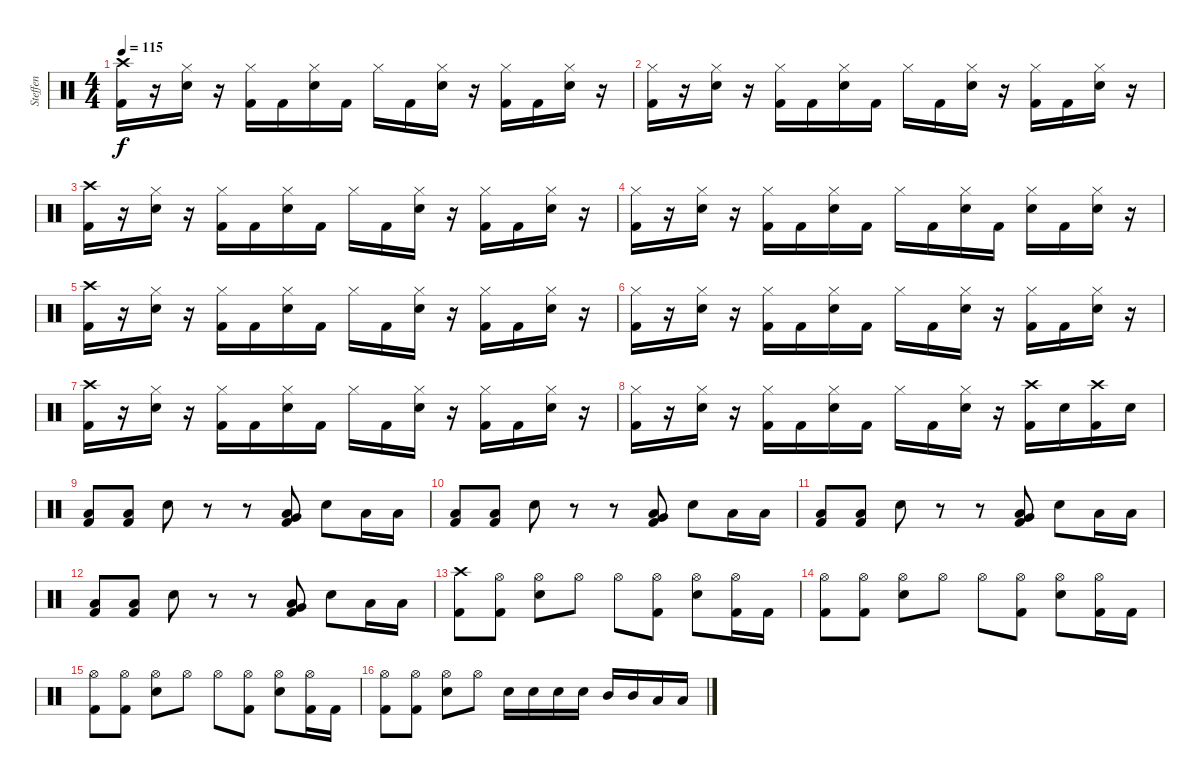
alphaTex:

\track ("Steffen" "Steffen") {instrument percussion}
\staff {score}
\articulation defaults
\ts (4 4)
\tempo 115
\clef neutral
\ks c
("Crash high (hit)" "Kick (hit) 2").16{dy f} r.16 ("Hi-Hat (closed)" "Snare (hit) 2").16 r.16 ("Hi-Hat (closed)" "Kick (hit) 2").16 "Kick (hit) 2".16 ("Hi-Hat (closed)" "Snare (hit) 2").16 "Kick (hit) 2".16 "Hi-Hat (closed)".16 "Kick (hit) 2".16 ("Hi-Hat (closed)" "Snare (hit) 2").16 r.16 ("Hi-Hat (closed)" "Kick (hit) 2").16 "Kick (hit) 2".16 ("Hi-Hat (closed)" "Snare (hit) 2").16 r.16 |
("Hi-Hat (closed)" "Kick (hit) 2").16 r.16 ("Hi-Hat (closed)" "Snare (hit) 2").16 r.16 ("Hi-Hat (closed)" "Kick (hit) 2").16 "Kick (hit) 2".16 ("Hi-Hat (closed)" "Snare (hit) 2").16 "Kick (hit) 2".16 "Hi-Hat (closed)".16 "Kick (hit) 2".16 ("Hi-Hat (closed)" "Snare (hit) 2").16 r.16 ("Hi-Hat (closed)" "Kick (hit) 2").16 "Kick (hit) 2".16 ("Hi-Hat (closed)" "Snare (hit) 2").16 r.16 |
("Crash high (hit)" "Kick (hit) 2").16 r.16 ("Hi-Hat (closed)" "Snare (hit) 2").16 r.16 ("Hi-Hat (closed)" "Kick (hit) 2").16 "Kick (hit) 2".16 ("Hi-Hat (closed)" "Snare (hit) 2").16 "Kick (hit) 2".16 "Hi-Hat (closed)".16 "Kick (hit) 2".16 ("Hi-Hat (closed)" "Snare (hit) 2").16 r.16 ("Hi-Hat (closed)" "Kick (hit) 2").16 "Kick (hit) 2".16 ("Hi-Hat (closed)" "Snare (hit) 2").16 r.16 |
("Hi-Hat (closed)" "Kick (hit) 2").16 r.16 ("Hi-Hat (closed)" "Snare (hit) 2").16 r.16 ("Hi-Hat (closed)" "Kick (hit) 2").16 "Kick (hit) 2".16 ("Hi-Hat (closed)" "Snare (hit) 2").16 "Kick (hit) 2".16 "Hi-Hat (closed)".16 "Kick (hit) 2".16 ("Hi-Hat (closed)" "Snare (hit) 2").16 "Kick (hit) 2".16 ("Hi-Hat (closed)" "Snare (hit) 2").16 "Kick (hit) 2".16 ("Hi-Hat (closed)" "Snare (hit) 2").16 r.16 |
("Crash high (hit)" "Kick (hit) 2").16 r.16 ("Hi-Hat (closed)" "Snare (hit) 2").16 r.16 ("Hi-Hat (closed)" "Kick (hit) 2").16 "Kick (hit) 2".16 ("Hi-Hat (closed)" "Snare (hit) 2").16 "Kick (hit) 2".16 "Hi-Hat (closed)".16 "Kick (hit) 2".16 ("Hi-Hat (closed)" "Snare (hit) 2").16 r.16 ("Hi-Hat (closed)" "Kick (hit) 2").16 "Kick (hit) 2".16 ("Hi-Hat (closed)" "Snare (hit) 2").16 r.16 |
("Hi-Hat (closed)" "Kick (hit) 2").16 r.16 ("Hi-Hat (closed)" "Snare (hit) 2").16 r.16 ("Hi-Hat (closed)" "Kick (hit) 2").16 "Kick (hit) 2".16 ("Hi-Hat (closed)" "Snare (hit) 2").16 "Kick (hit) 2".16 "Hi-Hat (closed)".16 "Kick (hit) 2".16 ("Hi-Hat (closed)" "Snare (hit) 2").16 r.16 ("Hi-Hat (closed)" "Kick (hit) 2").16 "Kick (hit) 2".16 ("Hi-Hat (closed)" "Snare (hit) 2").16 r.16 |
("Crash high (hit)" "Kick (hit) 2").16 r.16 ("Hi-Hat (closed)" "Snare (hit) 2").16 r.16 ("Hi-Hat (closed)" "Kick (hit) 2").16 "Kick (hit) 2".16 ("Hi-Hat (closed)" "Snare (hit) 2").16 "Kick (hit) 2".16 "Hi-Hat (closed)".16 "Kick (hit) 2".16 ("Hi-Hat (closed)" "Snare (hit) 2").16 r.16 ("Hi-Hat (closed)" "Kick (hit) 2").16 "Kick (hit) 2".16 ("Hi-Hat (closed)" "Snare (hit) 2").16 r.16 |
("Hi-Hat (closed)" "Kick (hit) 2").16 r.16 ("Hi-Hat (closed)" "Snare (hit) 2").16 r.16 ("Hi-Hat (closed)" "Kick (hit) 2").16 "Kick (hit) 2".16 ("Hi-Hat (closed)" "Snare (hit) 2").16 "Kick (hit) 2".16 "Hi-Hat (closed)".16 "Kick (hit) 2".16 ("Hi-Hat (closed)" "Snare (hit) 2").16 r.16 ("Crash high (hit)" "Kick (hit) 2").16 "Snare (hit) 2".16 ("Crash high (hit)" "Kick (hit) 2").16 "Snare (hit) 2".16 |
("Low Tom (hit)" "Kick (hit) 2").8 ("Low Tom (hit)" "Kick (hit) 2").8 "Snare (hit) 2".8 r.8 r.8 ("Low Floor Tom (hit)" "Very Low Tom (hit)" "Kick (hit) 2").8 "Snare (hit) 2".8 "Low Tom (hit)".16 "Low Tom (hit)".16 |
("Low Tom (hit)" "Kick (hit) 2").8 ("Low Tom (hit)" "Kick (hit) 2").8 "Snare (hit) 2".8 r.8 r.8 ("Low Floor Tom (hit)" "Very Low Tom (hit)" "Kick (hit) 2").8 "Snare (hit) 2".8 "Low Tom (hit)".16 "Low Tom (hit)".16 |
("Low Tom (hit)" "Kick (hit) 2").8 ("Low Tom (hit)" "Kick (hit) 2").8 "Snare (hit) 2".8 r.8 r.8 ("Low Floor Tom (hit)" "Very Low Tom (hit)" "Kick (hit) 2").8 "Snare (hit) 2".8 "Low Tom (hit)".16 "Low Tom (hit)".16 |
("Low Tom (hit)" "Kick (hit) 2").8 ("Low Tom (hit)" "Kick (hit) 2").8 "Snare (hit) 2".8 r.8 r.8 ("Low Floor Tom (hit)" "Very Low Tom (hit)" "Kick (hit) 2").8 "Snare (hit) 2".8 "Low Tom (hit)".16 "Low Tom (hit)".16 |
("Crash high (hit)" "Kick (hit) 2").8 ("Hi-Hat (open)" "Kick (hit) 2").8 ("Hi-Hat (open)" "Snare (hit) 2").8 "Hi-Hat (open)".8 "Hi-Hat (open)".8 ("Hi-Hat (open)" "Kick (hit) 2").8 ("Hi-Hat (open)" "Snare (hit) 2").8 ("Hi-Hat (open)" "Kick (hit) 2").16 "Kick (hit) 2".16 |
("Hi-Hat (open)" "Kick (hit) 2").8 ("Hi-Hat (open)" "Kick (hit) 2").8 ("Hi-Hat (open)" "Snare (hit) 2").8 "Hi-Hat (open)".8 "Hi-Hat (open)".8 ("Hi-Hat (open)" "Kick (hit) 2").8 ("Hi-Hat (open)" "Snare (hit) 2").8 ("Hi-Hat (open)" "Kick (hit) 2").16 "Kick (hit) 2".16 |
("Hi-Hat (open)" "Kick (hit) 2").8 ("Hi-Hat (open)" "Kick (hit) 2").8 ("Hi-Hat (open)" "Snare (hit) 2").8 "Hi-Hat (open)".8 "Hi-Hat (open)".8 ("Hi-Hat (open)" "Kick (hit) 2").8 ("Hi-Hat (open)" "Snare (hit) 2").8 ("Hi-Hat (open)" "Kick (hit) 2").16 "Kick (hit) 2".16 |
("Hi-Hat (open)" "Kick (hit) 2").8 ("Hi-Hat (open)" "Kick (hit) 2").8 ("Hi-Hat (open)" "Snare (hit) 2").8 "Hi-Hat (open)".8 "Snare (hit) 2".16 "Snare (hit) 2".16 "Snare (hit) 2".16 "Snare (hit) 2".16 "Mid Tom (hit)".16 "Mid Tom (hit)".16 "Low Tom (hit)".16 "Low Tom (hit)".16
